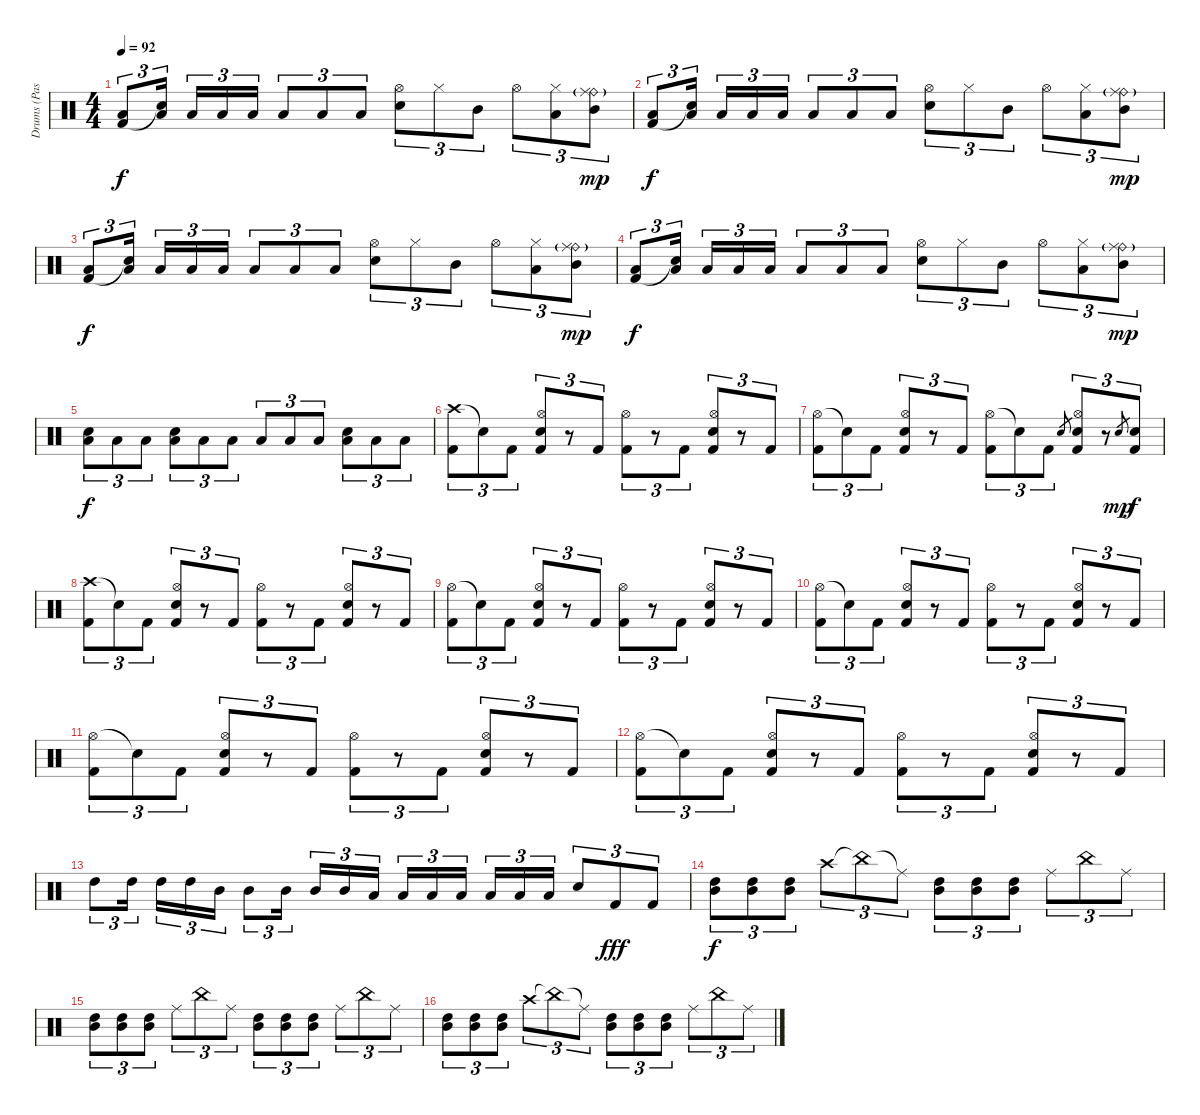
\track ("Drums (Pasanen)" "Drums (Pas") {instrument percussion}
\staff {score}
\articulation defaults
\ts (4 4)
\tempo 92
\clef neutral
\ks c
("Low Tom (hit)" "Kick (hit) 2").8{tu (3 2) dy f} ("Low Tom (hit)" "Snare (hit)"{t}).16{tu (3 2) beam splitsecondary} "Low Tom (hit)".16{tu (3 2)} "Low Tom (hit)".16{tu (3 2)} "Low Tom (hit)".16{tu (3 2)} "Low Tom (hit)".8{tu (3 2)} "Low Tom (hit)".8{tu (3 2)} "Low Tom (hit)".8{tu (3 2)} ("Hi-Hat (open)" "Electric Snare (hit)").8{tu (3 2)} "Hi-Hat (closed)".8{tu (3 2)} "Mid Tom (hit)".8{tu (3 2)} "Hi-Hat (open)".8{tu (3 2)} ("Hi-Hat (closed)" "Low Tom (hit)").8{tu (3 2)} ("Ride (bell)"{g} "Ride (middle)" "Mid Tom (hit)").8{tu (3 2) dy mp} |
("Low Tom (hit)" "Kick (hit) 2").8{tu (3 2) dy f} ("Low Tom (hit)" "Snare (hit)"{t}).16{tu (3 2) beam splitsecondary} "Low Tom (hit)".16{tu (3 2)} "Low Tom (hit)".16{tu (3 2)} "Low Tom (hit)".16{tu (3 2)} "Low Tom (hit)".8{tu (3 2)} "Low Tom (hit)".8{tu (3 2)} "Low Tom (hit)".8{tu (3 2)} ("Hi-Hat (open)" "Electric Snare (hit)").8{tu (3 2)} "Hi-Hat (closed)".8{tu (3 2)} "Mid Tom (hit)".8{tu (3 2)} "Hi-Hat (open)".8{tu (3 2)} ("Hi-Hat (closed)" "Low Tom (hit)").8{tu (3 2)} ("Ride (bell)"{g} "Ride (middle)" "Mid Tom (hit)").8{tu (3 2) dy mp} |
("Low Tom (hit)" "Kick (hit) 2").8{tu (3 2) dy f} ("Low Tom (hit)" "Snare (hit)"{t}).16{tu (3 2) beam splitsecondary} "Low Tom (hit)".16{tu (3 2)} "Low Tom (hit)".16{tu (3 2)} "Low Tom (hit)".16{tu (3 2)} "Low Tom (hit)".8{tu (3 2)} "Low Tom (hit)".8{tu (3 2)} "Low Tom (hit)".8{tu (3 2)} ("Hi-Hat (open)" "Electric Snare (hit)").8{tu (3 2)} "Hi-Hat (closed)".8{tu (3 2)} "Mid Tom (hit)".8{tu (3 2)} "Hi-Hat (open)".8{tu (3 2)} ("Hi-Hat (closed)" "Low Tom (hit)").8{tu (3 2)} ("Ride (bell)"{g} "Ride (middle)" "Mid Tom (hit)").8{tu (3 2) dy mp} |
("Low Tom (hit)" "Kick (hit) 2").8{tu (3 2) dy f} ("Low Tom (hit)" "Snare (hit)"{t}).16{tu (3 2) beam splitsecondary} "Low Tom (hit)".16{tu (3 2)} "Low Tom (hit)".16{tu (3 2)} "Low Tom (hit)".16{tu (3 2)} "Low Tom (hit)".8{tu (3 2)} "Low Tom (hit)".8{tu (3 2)} "Low Tom (hit)".8{tu (3 2)} ("Hi-Hat (open)" "Electric Snare (hit)").8{tu (3 2)} "Hi-Hat (closed)".8{tu (3 2)} "Mid Tom (hit)".8{tu (3 2)} "Hi-Hat (open)".8{tu (3 2)} ("Hi-Hat (closed)" "Low Tom (hit)").8{tu (3 2)} ("Ride (bell)"{g} "Ride (middle)" "Mid Tom (hit)").8{tu (3 2) dy mp} |
("Low Tom (hit)" "Electric Snare (hit)").8{tu (3 2) dy f} "Low Tom (hit)".8{tu (3 2)} "Low Tom (hit)".8{tu (3 2)} ("Low Tom (hit)" "Electric Snare (hit)").8{tu (3 2)} "Low Tom (hit)".8{tu (3 2)} "Low Tom (hit)".8{tu (3 2)} "Low Tom (hit)".8{tu (3 2)} "Low Tom (hit)".8{tu (3 2)} "Low Tom (hit)".8{tu (3 2)} ("Low Tom (hit)" "Electric Snare (hit)").8{tu (3 2)} "Low Tom (hit)".8{tu (3 2)} "Low Tom (hit)".8{tu (3 2)} |
("Crash high (hit)" "Kick (hit) 2").8{tu (3 2)} "Snare (hit)"{t}.8{tu (3 2)} "Kick (hit) 2".8{tu (3 2)} ("Hi-Hat (open)" "Electric Snare (hit)" "Kick (hit) 2").8{tu (3 2)} r.8{tu (3 2)} "Kick (hit) 2".8{tu (3 2)} ("Hi-Hat (open)" "Kick (hit) 2").8{tu (3 2)} r.8{tu (3 2)} "Kick (hit) 2".8{tu (3 2)} ("Hi-Hat (open)" "Electric Snare (hit)" "Kick (hit) 2").8{tu (3 2)} r.8{tu (3 2)} "Kick (hit) 2".8{tu (3 2)} |
("Hi-Hat (open)" "Kick (hit) 2").8{tu (3 2)} "Snare (hit)"{t}.8{tu (3 2)} "Kick (hit) 2".8{tu (3 2)} ("Hi-Hat (open)" "Electric Snare (hit)" "Kick (hit) 2").8{tu (3 2)} r.8{tu (3 2)} "Kick (hit) 2".8{tu (3 2)} ("Hi-Hat (open)" "Kick (hit) 2").8{tu (3 2)} "Snare (hit)"{t}.8{tu (3 2)} "Kick (hit) 2".8{tu (3 2)} "Electric Snare (hit)".8{gr} ("Hi-Hat (open)" "Electric Snare (hit)" "Kick (hit) 2").8{tu (3 2)} r.8{tu (3 2)} "Electric Snare (hit)".8{gr dy mp} ("Electric Snare (hit)" "Kick (hit) 2").8{tu (3 2) dy f} |
("Crash high (hit)" "Kick (hit) 2").8{tu (3 2)} "Snare (hit)"{t}.8{tu (3 2)} "Kick (hit) 2".8{tu (3 2)} ("Hi-Hat (open)" "Electric Snare (hit)" "Kick (hit) 2").8{tu (3 2)} r.8{tu (3 2)} "Kick (hit) 2".8{tu (3 2)} ("Hi-Hat (open)" "Kick (hit) 2").8{tu (3 2)} r.8{tu (3 2)} "Kick (hit) 2".8{tu (3 2)} ("Hi-Hat (open)" "Electric Snare (hit)" "Kick (hit) 2").8{tu (3 2)} r.8{tu (3 2)} "Kick (hit) 2".8{tu (3 2)} |
("Hi-Hat (open)" "Kick (hit) 2").8{tu (3 2)} "Snare (hit)"{t}.8{tu (3 2)} "Kick (hit) 2".8{tu (3 2)} ("Hi-Hat (open)" "Electric Snare (hit)" "Kick (hit) 2").8{tu (3 2)} r.8{tu (3 2)} "Kick (hit) 2".8{tu (3 2)} ("Hi-Hat (open)" "Kick (hit) 2").8{tu (3 2)} r.8{tu (3 2)} "Kick (hit) 2".8{tu (3 2)} ("Hi-Hat (open)" "Electric Snare (hit)" "Kick (hit) 2").8{tu (3 2)} r.8{tu (3 2)} "Kick (hit) 2".8{tu (3 2)} |
("Hi-Hat (open)" "Kick (hit) 2").8{tu (3 2)} "Snare (hit)"{t}.8{tu (3 2)} "Kick (hit) 2".8{tu (3 2)} ("Hi-Hat (open)" "Electric Snare (hit)" "Kick (hit) 2").8{tu (3 2)} r.8{tu (3 2)} "Kick (hit) 2".8{tu (3 2)} ("Hi-Hat (open)" "Kick (hit) 2").8{tu (3 2)} r.8{tu (3 2)} "Kick (hit) 2".8{tu (3 2)} ("Hi-Hat (open)" "Electric Snare (hit)" "Kick (hit) 2").8{tu (3 2)} r.8{tu (3 2)} "Kick (hit) 2".8{tu (3 2)} |
("Hi-Hat (open)" "Kick (hit) 2").8{tu (3 2)} "Snare (hit)"{t}.8{tu (3 2)} "Kick (hit) 2".8{tu (3 2)} ("Hi-Hat (open)" "Electric Snare (hit)" "Kick (hit) 2").8{tu (3 2)} r.8{tu (3 2)} "Kick (hit) 2".8{tu (3 2)} ("Hi-Hat (open)" "Kick (hit) 2").8{tu (3 2)} r.8{tu (3 2)} "Kick (hit) 2".8{tu (3 2)} ("Hi-Hat (open)" "Electric Snare (hit)" "Kick (hit) 2").8{tu (3 2)} r.8{tu (3 2)} "Kick (hit) 2".8{tu (3 2)} |
("Hi-Hat (open)" "Kick (hit) 2").8{tu (3 2)} "Snare (hit)"{t}.8{tu (3 2)} "Kick (hit) 2".8{tu (3 2)} ("Hi-Hat (open)" "Electric Snare (hit)" "Kick (hit) 2").8{tu (3 2)} r.8{tu (3 2)} "Kick (hit) 2".8{tu (3 2)} ("Hi-Hat (open)" "Kick (hit) 2").8{tu (3 2)} r.8{tu (3 2)} "Kick (hit) 2".8{tu (3 2)} ("Hi-Hat (open)" "Electric Snare (hit)" "Kick (hit) 2").8{tu (3 2)} r.8{tu (3 2)} "Kick (hit) 2".8{tu (3 2)} |
"High Tom (hit)".8{tu (3 2)} "High Tom (hit)".16{tu (3 2) beam splitsecondary} "High Tom (hit)".16{tu (3 2)} "High Tom (hit)".16{tu (3 2)} "Mid Tom (hit)".16{tu (3 2)} "Mid Tom (hit)".8{tu (3 2)} "Mid Tom (hit)".16{tu (3 2) beam splitsecondary} "Mid Tom (hit)".16{tu (3 2)} "Mid Tom (hit)".16{tu (3 2)} "Low Tom (hit)".16{tu (3 2)} "Low Tom (hit)".16{tu (3 2)} "Low Tom (hit)".16{tu (3 2)} "Low Tom (hit)".16{tu (3 2) beam splitsecondary} "Low Tom (hit)".16{tu (3 2)} "Low Tom (hit)".16{tu (3 2)} "Low Tom (hit)".16{tu (3 2)} "Electric Snare (hit)".8{tu (3 2)} "Kick (hit) 2".8{tu (3 2) dy fff} "Kick (hit) 2".8{tu (3 2)} |
("High Tom (hit)" "Mid Tom (hit)").8{tu (3 2) dy f} ("Mid Tom (hit)" "High Tom (hit)").8{tu (3 2)} ("Mid Tom (hit)" "High Tom (hit)").8{tu (3 2)} "Crash high (hit)".8{tu (3 2)} "China (hit)"{t}.8{tu (3 2)} "Ride (middle)"{t}.8{tu (3 2)} ("High Tom (hit)" "Mid Tom (hit)").8{tu (3 2)} ("Mid Tom (hit)" "High Tom (hit)").8{tu (3 2)} ("Mid Tom (hit)" "High Tom (hit)").8{tu (3 2)} "Ride (middle)".8{tu (3 2)} "China (hit)".8{tu (3 2)} "Ride (middle)".8{tu (3 2)} |
("High Tom (hit)" "Mid Tom (hit)").8{tu (3 2)} ("Mid Tom (hit)" "High Tom (hit)").8{tu (3 2)} ("Mid Tom (hit)" "High Tom (hit)").8{tu (3 2)} "Ride (middle)".8{tu (3 2)} "China (hit)".8{tu (3 2)} "Ride (middle)".8{tu (3 2)} ("High Tom (hit)" "Mid Tom (hit)").8{tu (3 2)} ("Mid Tom (hit)" "High Tom (hit)").8{tu (3 2)} ("Mid Tom (hit)" "High Tom (hit)").8{tu (3 2)} "Ride (middle)".8{tu (3 2)} "China (hit)".8{tu (3 2)} "Ride (middle)".8{tu (3 2)} |
("High Tom (hit)" "Mid Tom (hit)").8{tu (3 2)} ("Mid Tom (hit)" "High Tom (hit)").8{tu (3 2)} ("Mid Tom (hit)" "High Tom (hit)").8{tu (3 2)} "Crash high (hit)".8{tu (3 2)} "China (hit)"{t}.8{tu (3 2)} "Ride (middle)"{t}.8{tu (3 2)} ("High Tom (hit)" "Mid Tom (hit)").8{tu (3 2)} ("Mid Tom (hit)" "High Tom (hit)").8{tu (3 2)} ("Mid Tom (hit)" "High Tom (hit)").8{tu (3 2)} "Ride (middle)".8{tu (3 2)} "China (hit)".8{tu (3 2)} "Ride (middle)".8{tu (3 2)}
